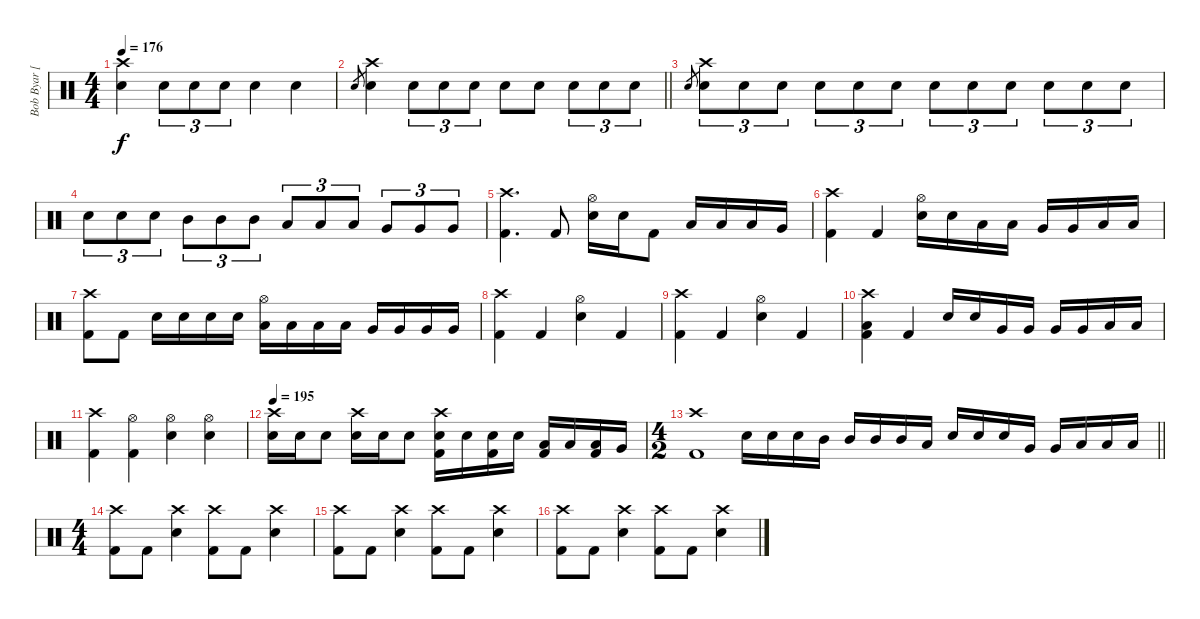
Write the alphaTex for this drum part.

\track ("Bob Byar [Drums]" "Bob Byar [") {instrument percussion}
\staff {score}
\articulation defaults
\ts (4 4)
\tempo 176
\clef neutral
\ks c
("Crash high (hit)" "Electric Snare (hit)").4{dy f} "Electric Snare (hit)".8{tu (3 2)} "Electric Snare (hit)".8{tu (3 2)} "Electric Snare (hit)".8{tu (3 2)} "Electric Snare (hit)".4 "Electric Snare (hit)".4 |
\barLineRight lightlight "Electric Snare (hit)".8{gr}
("Crash high (hit)" "Electric Snare (hit)").4 "Electric Snare (hit)".8{tu (3 2)} "Electric Snare (hit)".8{tu (3 2)} "Electric Snare (hit)".8{tu (3 2)} "Electric Snare (hit)".8 "Electric Snare (hit)".8 "Electric Snare (hit)".8{tu (3 2)} "Electric Snare (hit)".8{tu (3 2)} "Electric Snare (hit)".8{tu (3 2)} |
"Electric Snare (hit)".8{gr} ("Crash high (hit)" "Electric Snare (hit)").8{tu (3 2)} "Electric Snare (hit)".8{tu (3 2)} "Electric Snare (hit)".8{tu (3 2)} "Electric Snare (hit)".8{tu (3 2)} "Electric Snare (hit)".8{tu (3 2)} "Electric Snare (hit)".8{tu (3 2)} "Electric Snare (hit)".8{tu (3 2)} "Electric Snare (hit)".8{tu (3 2)} "Electric Snare (hit)".8{tu (3 2)} "Electric Snare (hit)".8{tu (3 2)} "Electric Snare (hit)".8{tu (3 2)} "Electric Snare (hit)".8{tu (3 2)} |
"Electric Snare (hit)".8{tu (3 2)} "Electric Snare (hit)".8{tu (3 2)} "Electric Snare (hit)".8{tu (3 2)} "Mid Tom (hit)".8{tu (3 2)} "Mid Tom (hit)".8{tu (3 2)} "Mid Tom (hit)".8{tu (3 2)} "Low Tom (hit)".8{tu (3 2)} "Low Tom (hit)".8{tu (3 2)} "Low Tom (hit)".8{tu (3 2)} "Very Low Tom (hit)".8{tu (3 2)} "Very Low Tom (hit)".8{tu (3 2)} "Very Low Tom (hit)".8{tu (3 2)} |
("Crash high (hit)" "Kick (hit) 2").4{d} "Kick (hit) 2".8 ("Hi-Hat (open)" "Electric Snare (hit)").16 "Electric Snare (hit)".16 "Kick (hit) 2".8 "Low Tom (hit)".16 "Low Tom (hit)".16 "Low Tom (hit)".16 "Very Low Tom (hit)".16 |
("Crash high (hit)" "Kick (hit) 2").4 "Kick (hit) 2".4 ("Hi-Hat (open)" "Electric Snare (hit)").16 "Electric Snare (hit)".16 "Low Tom (hit)".16 "Low Tom (hit)".16 "Very Low Tom (hit)".16 "Very Low Tom (hit)".16 "Low Floor Tom (hit)".16 "Low Floor Tom (hit)".16 |
("Crash high (hit)" "Kick (hit) 2").8 "Kick (hit) 2".8 "Electric Snare (hit)".16 "Electric Snare (hit)".16 "Electric Snare (hit)".16 "Electric Snare (hit)".16 ("Hi-Hat (open)" "Low Tom (hit)").16 "Low Tom (hit)".16 "Low Tom (hit)".16 "Low Tom (hit)".16 "Very Low Tom (hit)".16 "Very Low Tom (hit)".16 "Very Low Tom (hit)".16 "Very Low Tom (hit)".16 |
("Crash high (hit)" "Kick (hit) 2").4 "Kick (hit) 2".4 ("Hi-Hat (open)" "Electric Snare (hit)").4 "Kick (hit) 2".4 |
("Crash high (hit)" "Kick (hit) 2").4 "Kick (hit) 2".4 ("Hi-Hat (open)" "Electric Snare (hit)").4 "Kick (hit) 2".4 |
("Crash high (hit)" "Low Floor Tom (hit)" "Kick (hit) 2").4 "Kick (hit) 2".4 "Electric Snare (hit)".16 "Electric Snare (hit)".16 "Very Low Tom (hit)".16 "Very Low Tom (hit)".16 "Very Low Tom (hit)".16 "Very Low Tom (hit)".16 "Low Floor Tom (hit)".16 "Low Floor Tom (hit)".16 |
("Crash high (hit)" "Kick (hit) 2").4 ("Hi-Hat (open)" "Kick (hit) 2").4 ("Hi-Hat (open)" "Electric Snare (hit)").4 ("Hi-Hat (open)" "Electric Snare (hit)").4 |
\tempo 195
("Crash high (hit)" "Electric Snare (hit)").16 "Electric Snare (hit)".16 "Electric Snare (hit)".8 ("Crash high (hit)" "Electric Snare (hit)").16 "Electric Snare (hit)".16 "Electric Snare (hit)".8 ("Crash high (hit)" "Electric Snare (hit)" "Kick (hit) 2").16 "Electric Snare (hit)".16 ("Electric Snare (hit)" "Kick (hit) 2").16 "Electric Snare (hit)".16 ("Low Tom (hit)" "Kick (hit) 2").16 "Low Tom (hit)".16 ("Low Tom (hit)" "Kick (hit) 2").16 "Very Low Tom (hit)".16 |
\ts (4 2)
\barLineRight lightlight
("Crash high (hit)" "Kick (hit) 2").1 "Electric Snare (hit)".16 "Electric Snare (hit)".16 "Electric Snare (hit)".16 "Mid Tom (hit)".16 "Mid Tom (hit)".16 "Mid Tom (hit)".16 "Mid Tom (hit)".16 "Low Tom (hit)".16 "Electric Snare (hit)".16 "Electric Snare (hit)".16 "Electric Snare (hit)".16 "Very Low Tom (hit)".16 "Very Low Tom (hit)".16 "Low Floor Tom (hit)".16 "Low Floor Tom (hit)".16 "Low Floor Tom (hit)".16 |
\ts (4 4)
("Crash high (hit)" "Kick (hit) 2").8 "Kick (hit) 2".8 ("Crash high (hit)" "Electric Snare (hit)").4 ("Crash high (hit)" "Kick (hit) 2").8 "Kick (hit) 2".8 ("Crash high (hit)" "Electric Snare (hit)").4 |
("Crash high (hit)" "Kick (hit) 2").8 "Kick (hit) 2".8 ("Crash high (hit)" "Electric Snare (hit)").4 ("Crash high (hit)" "Kick (hit) 2").8 "Kick (hit) 2".8 ("Crash high (hit)" "Electric Snare (hit)").4 |
("Crash high (hit)" "Kick (hit) 2").8 "Kick (hit) 2".8 ("Crash high (hit)" "Electric Snare (hit)").4 ("Crash high (hit)" "Kick (hit) 2").8 "Kick (hit) 2".8 ("Crash high (hit)" "Electric Snare (hit)").4
